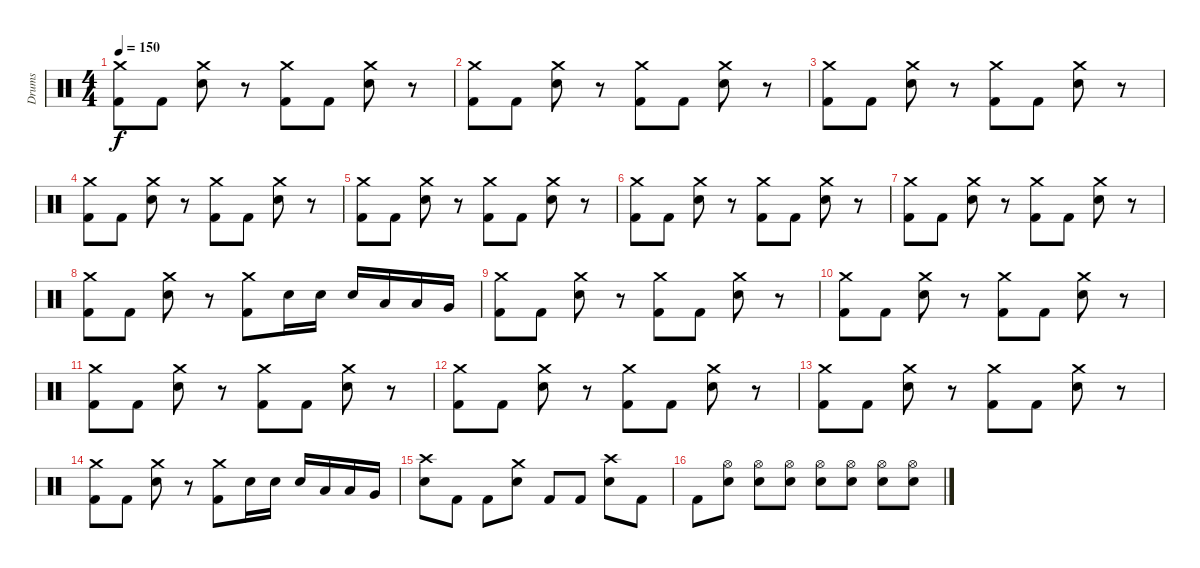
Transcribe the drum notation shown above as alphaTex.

\track ("Drums" "Drums") {instrument percussion}
\staff {score}
\articulation defaults
\ts (4 4)
\tempo 150
\clef neutral
\ks c
("Crash medium (hit)" "Kick (hit) 2").8{dy f} "Kick (hit) 2".8 ("Crash medium (hit)" "Electric Snare (hit)").8 r.8 ("Crash medium (hit)" "Kick (hit) 2").8 "Kick (hit) 2".8 ("Crash medium (hit)" "Electric Snare (hit)").8 r.8 |
("Crash medium (hit)" "Kick (hit) 2").8 "Kick (hit) 2".8 ("Crash medium (hit)" "Electric Snare (hit)").8 r.8 ("Crash medium (hit)" "Kick (hit) 2").8 "Kick (hit) 2".8 ("Crash medium (hit)" "Electric Snare (hit)").8 r.8 |
("Crash medium (hit)" "Kick (hit) 2").8 "Kick (hit) 2".8 ("Crash medium (hit)" "Electric Snare (hit)").8 r.8 ("Crash medium (hit)" "Kick (hit) 2").8 "Kick (hit) 2".8 ("Crash medium (hit)" "Electric Snare (hit)").8 r.8 |
("Crash medium (hit)" "Kick (hit) 2").8 "Kick (hit) 2".8 ("Crash medium (hit)" "Electric Snare (hit)").8 r.8 ("Crash medium (hit)" "Kick (hit) 2").8 "Kick (hit) 2".8 ("Crash medium (hit)" "Electric Snare (hit)").8 r.8 |
("Crash medium (hit)" "Kick (hit) 2").8 "Kick (hit) 2".8 ("Crash medium (hit)" "Electric Snare (hit)").8 r.8 ("Crash medium (hit)" "Kick (hit) 2").8 "Kick (hit) 2".8 ("Crash medium (hit)" "Electric Snare (hit)").8 r.8 |
("Crash medium (hit)" "Kick (hit) 2").8 "Kick (hit) 2".8 ("Crash medium (hit)" "Electric Snare (hit)").8 r.8 ("Crash medium (hit)" "Kick (hit) 2").8 "Kick (hit) 2".8 ("Crash medium (hit)" "Electric Snare (hit)").8 r.8 |
("Crash medium (hit)" "Kick (hit) 2").8 "Kick (hit) 2".8 ("Crash medium (hit)" "Electric Snare (hit)").8 r.8 ("Crash medium (hit)" "Kick (hit) 2").8 "Kick (hit) 2".8 ("Crash medium (hit)" "Electric Snare (hit)").8 r.8 |
("Crash medium (hit)" "Kick (hit) 2").8 "Kick (hit) 2".8 ("Crash medium (hit)" "Electric Snare (hit)").8 r.8 ("Crash medium (hit)" "Kick (hit) 2").8 "Electric Snare (hit)".16 "Electric Snare (hit)".16 "Electric Snare (hit)".16 "Low Tom (hit)".16 "Low Tom (hit)".16 "Very Low Tom (hit)".16 |
("Crash medium (hit)" "Kick (hit) 2").8 "Kick (hit) 2".8 ("Crash medium (hit)" "Electric Snare (hit)").8 r.8 ("Crash medium (hit)" "Kick (hit) 2").8 "Kick (hit) 2".8 ("Crash medium (hit)" "Electric Snare (hit)").8 r.8 |
("Crash medium (hit)" "Kick (hit) 2").8 "Kick (hit) 2".8 ("Crash medium (hit)" "Electric Snare (hit)").8 r.8 ("Crash medium (hit)" "Kick (hit) 2").8 "Kick (hit) 2".8 ("Crash medium (hit)" "Electric Snare (hit)").8 r.8 |
("Crash medium (hit)" "Kick (hit) 2").8 "Kick (hit) 2".8 ("Crash medium (hit)" "Electric Snare (hit)").8 r.8 ("Crash medium (hit)" "Kick (hit) 2").8 "Kick (hit) 2".8 ("Crash medium (hit)" "Electric Snare (hit)").8 r.8 |
("Crash medium (hit)" "Kick (hit) 2").8 "Kick (hit) 2".8 ("Crash medium (hit)" "Electric Snare (hit)").8 r.8 ("Crash medium (hit)" "Kick (hit) 2").8 "Kick (hit) 2".8 ("Crash medium (hit)" "Electric Snare (hit)").8 r.8 |
("Crash medium (hit)" "Kick (hit) 2").8 "Kick (hit) 2".8 ("Crash medium (hit)" "Electric Snare (hit)").8 r.8 ("Crash medium (hit)" "Kick (hit) 2").8 "Kick (hit) 2".8 ("Crash medium (hit)" "Electric Snare (hit)").8 r.8 |
("Crash medium (hit)" "Kick (hit) 2").8 "Kick (hit) 2".8 ("Crash medium (hit)" "Electric Snare (hit)").8 r.8 ("Crash medium (hit)" "Kick (hit) 2").8 "Electric Snare (hit)".16 "Electric Snare (hit)".16 "Electric Snare (hit)".16 "Low Tom (hit)".16 "Low Tom (hit)".16 "Very Low Tom (hit)".16 |
("Crash high (hit)" "Electric Snare (hit)").8 "Kick (hit) 2".8 "Kick (hit) 2".8 ("Crash medium (hit)" "Electric Snare (hit)").8 "Kick (hit) 2".8 "Kick (hit) 2".8 ("Crash high (hit)" "Electric Snare (hit)").8 "Kick (hit) 2".8 |
"Kick (hit) 2".8 ("Hi-Hat (open)" "Electric Snare (hit)").8 ("Hi-Hat (open)" "Electric Snare (hit)").8 ("Hi-Hat (open)" "Electric Snare (hit)").8 ("Hi-Hat (open)" "Electric Snare (hit)").8 ("Hi-Hat (open)" "Electric Snare (hit)").8 ("Hi-Hat (open)" "Electric Snare (hit)").8 ("Hi-Hat (open)" "Electric Snare (hit)").8
